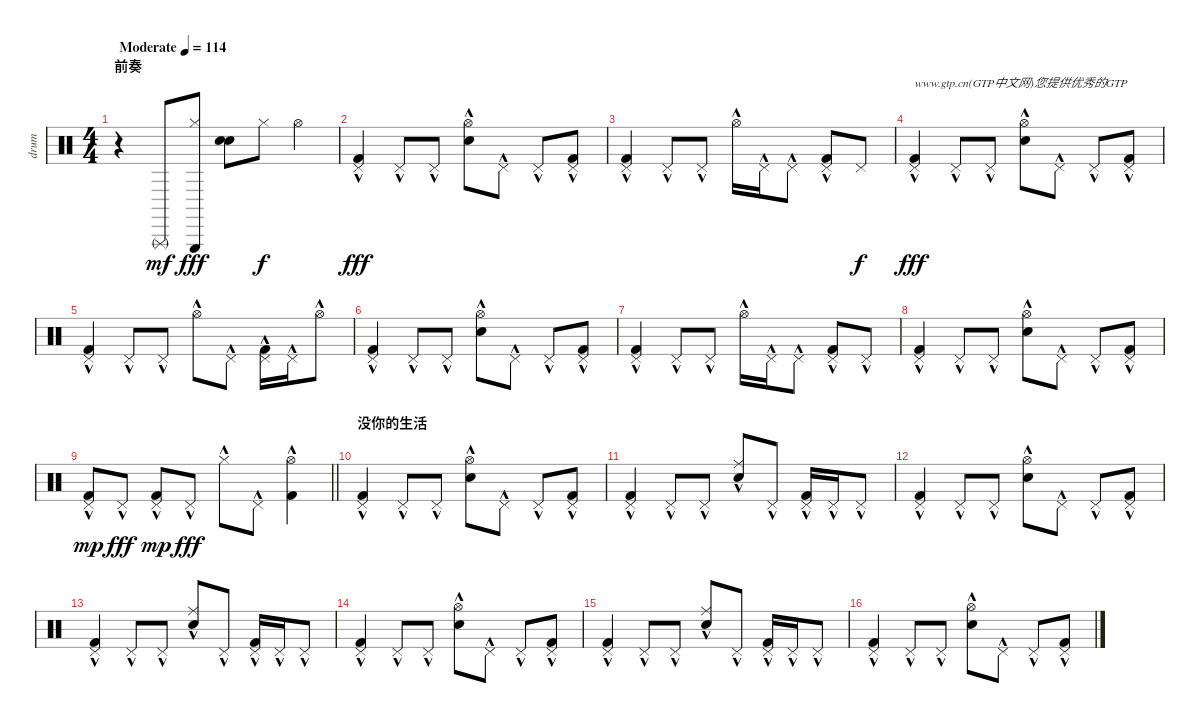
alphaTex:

\track ("drum" "drum") {instrument percussion}
\staff {score}
\articulation defaults
\ts (4 4)
\section ("" "前奏")
\tempo (114 "Moderate")
\clef neutral
\ks c
r.4{dy mf} "Triangle (rnute)".8 ("Triangle (hit)" "Hi-Hat (closed)").8{dy fff} ("Snare (hit) 2" "Hand Clap (hit)").8 "Hi-Hat (closed)".8{dy f} "Hi-Hat (open)".4 |
("Pedal Hi-Hat (hit)"{hac} "Kick (hit) 2"{hac}).4{dy fff} "Pedal Hi-Hat (hit)"{hac}.8 "Pedal Hi-Hat (hit)"{hac}.8 ("Hi-Hat (open)"{hac} "Hand Clap (hit)"{hac}).8 "Pedal Hi-Hat (hit)"{hac}.8 "Pedal Hi-Hat (hit)"{hac}.8 ("Pedal Hi-Hat (hit)"{hac} "Kick (hit) 2"{hac}).8 |
("Pedal Hi-Hat (hit)"{hac} "Kick (hit) 2"{hac}).4 "Pedal Hi-Hat (hit)"{hac}.8 "Pedal Hi-Hat (hit)"{hac}.8 "Hi-Hat (open)"{hac}.16 "Pedal Hi-Hat (hit)"{hac}.16 "Pedal Hi-Hat (hit)"{hac}.8 ("Pedal Hi-Hat (hit)"{hac} "Kick (hit) 2").8 "Pedal Hi-Hat (hit)".8{dy f} |
("Pedal Hi-Hat (hit)"{hac} "Kick (hit) 2"{hac}).4{txt "www.gtp.cn(GTP中文网)您提供优秀的GTP" dy fff} "Pedal Hi-Hat (hit)"{hac}.8 "Pedal Hi-Hat (hit)"{hac}.8 ("Hi-Hat (open)"{hac} "Hand Clap (hit)"{hac}).8 "Pedal Hi-Hat (hit)"{hac}.8 "Pedal Hi-Hat (hit)"{hac}.8 ("Pedal Hi-Hat (hit)"{hac} "Kick (hit) 2"{hac}).8 |
("Pedal Hi-Hat (hit)"{hac} "Kick (hit) 2"{hac}).4 "Pedal Hi-Hat (hit)"{hac}.8 "Pedal Hi-Hat (hit)"{hac}.8 "Hi-Hat (open)"{hac}.8 "Pedal Hi-Hat (hit)"{hac}.8 ("Pedal Hi-Hat (hit)"{hac} "Kick (hit) 2"{hac}).16 "Pedal Hi-Hat (hit)"{hac}.16 "Hi-Hat (open)"{hac}.8 |
("Pedal Hi-Hat (hit)"{hac} "Kick (hit) 2"{hac}).4 "Pedal Hi-Hat (hit)"{hac}.8 "Pedal Hi-Hat (hit)"{hac}.8 ("Hi-Hat (open)"{hac} "Hand Clap (hit)"{hac}).8 "Pedal Hi-Hat (hit)"{hac}.8 "Pedal Hi-Hat (hit)"{hac}.8 ("Pedal Hi-Hat (hit)"{hac} "Kick (hit) 2"{hac}).8 |
("Pedal Hi-Hat (hit)"{hac} "Kick (hit) 2"{hac}).4 "Pedal Hi-Hat (hit)"{hac}.8 "Pedal Hi-Hat (hit)"{hac}.8 "Hi-Hat (open)"{hac}.16 "Pedal Hi-Hat (hit)"{hac}.16 "Pedal Hi-Hat (hit)"{hac}.8 ("Pedal Hi-Hat (hit)"{hac} "Kick (hit) 2").8 "Pedal Hi-Hat (hit)"{hac}.8 |
("Pedal Hi-Hat (hit)"{hac} "Kick (hit) 2"{hac}).4 "Pedal Hi-Hat (hit)"{hac}.8 "Pedal Hi-Hat (hit)"{hac}.8 ("Hi-Hat (open)"{hac} "Hand Clap (hit)"{hac}).8 "Pedal Hi-Hat (hit)"{hac}.8 "Pedal Hi-Hat (hit)"{hac}.8 ("Pedal Hi-Hat (hit)"{hac} "Kick (hit) 2"{hac}).8 |
\barLineRight lightlight
("Pedal Hi-Hat (hit)"{hac} "Kick (hit) 2").8{dy mp} "Pedal Hi-Hat (hit)"{hac}.8{dy fff} ("Pedal Hi-Hat (hit)"{hac} "Kick (hit) 2").8{dy mp} "Pedal Hi-Hat (hit)"{hac}.8{dy fff} "Hi-Hat (closed)"{hac}.8 "Pedal Hi-Hat (hit)"{hac}.8 ("Hi-Hat (open)"{hac} "Kick (hit) 2"{hac}).4 |
\section ("" "没你的生活")
("Pedal Hi-Hat (hit)"{hac} "Kick (hit) 2"{hac}).4 "Pedal Hi-Hat (hit)"{hac}.8 "Pedal Hi-Hat (hit)"{hac}.8 ("Hi-Hat (open)"{hac} "Hand Clap (hit)"{hac}).8 "Pedal Hi-Hat (hit)"{hac}.8 "Pedal Hi-Hat (hit)"{hac}.8 ("Pedal Hi-Hat (hit)"{hac} "Kick (hit) 2"{hac}).8 |
("Pedal Hi-Hat (hit)"{hac} "Kick (hit) 2"{hac}).4 "Pedal Hi-Hat (hit)"{hac}.8 "Pedal Hi-Hat (hit)"{hac}.8 ("Ride (middle)"{hac} "Metronome (bell)"{hac}).8 "Pedal Hi-Hat (hit)"{hac}.8 ("Pedal Hi-Hat (hit)"{hac} "Kick (hit) 2"{hac}).16 "Pedal Hi-Hat (hit)"{hac}.16 "Pedal Hi-Hat (hit)"{hac}.8 |
("Pedal Hi-Hat (hit)"{hac} "Kick (hit) 2"{hac}).4 "Pedal Hi-Hat (hit)"{hac}.8 "Pedal Hi-Hat (hit)"{hac}.8 ("Hi-Hat (open)"{hac} "Hand Clap (hit)"{hac}).8 "Pedal Hi-Hat (hit)"{hac}.8 "Pedal Hi-Hat (hit)"{hac}.8 ("Pedal Hi-Hat (hit)"{hac} "Kick (hit) 2"{hac}).8 |
("Pedal Hi-Hat (hit)"{hac} "Kick (hit) 2"{hac}).4 "Pedal Hi-Hat (hit)"{hac}.8 "Pedal Hi-Hat (hit)"{hac}.8 ("Ride (middle)"{hac} "Metronome (bell)"{hac}).8 "Pedal Hi-Hat (hit)"{hac}.8 ("Pedal Hi-Hat (hit)"{hac} "Kick (hit) 2"{hac}).16 "Pedal Hi-Hat (hit)"{hac}.16 "Pedal Hi-Hat (hit)"{hac}.8 |
("Pedal Hi-Hat (hit)"{hac} "Kick (hit) 2"{hac}).4 "Pedal Hi-Hat (hit)"{hac}.8 "Pedal Hi-Hat (hit)"{hac}.8 ("Hi-Hat (open)"{hac} "Hand Clap (hit)"{hac}).8 "Pedal Hi-Hat (hit)"{hac}.8 "Pedal Hi-Hat (hit)"{hac}.8 ("Pedal Hi-Hat (hit)"{hac} "Kick (hit) 2"{hac}).8 |
("Pedal Hi-Hat (hit)"{hac} "Kick (hit) 2"{hac}).4 "Pedal Hi-Hat (hit)"{hac}.8 "Pedal Hi-Hat (hit)"{hac}.8 ("Ride (middle)"{hac} "Metronome (bell)"{hac}).8 "Pedal Hi-Hat (hit)"{hac}.8 ("Pedal Hi-Hat (hit)"{hac} "Kick (hit) 2"{hac}).16 "Pedal Hi-Hat (hit)"{hac}.16 "Pedal Hi-Hat (hit)"{hac}.8 |
("Pedal Hi-Hat (hit)"{hac} "Kick (hit) 2"{hac}).4 "Pedal Hi-Hat (hit)"{hac}.8 "Pedal Hi-Hat (hit)"{hac}.8 ("Hi-Hat (open)"{hac} "Hand Clap (hit)"{hac}).8 "Pedal Hi-Hat (hit)"{hac}.8 "Pedal Hi-Hat (hit)"{hac}.8 ("Pedal Hi-Hat (hit)"{hac} "Kick (hit) 2"{hac}).8
